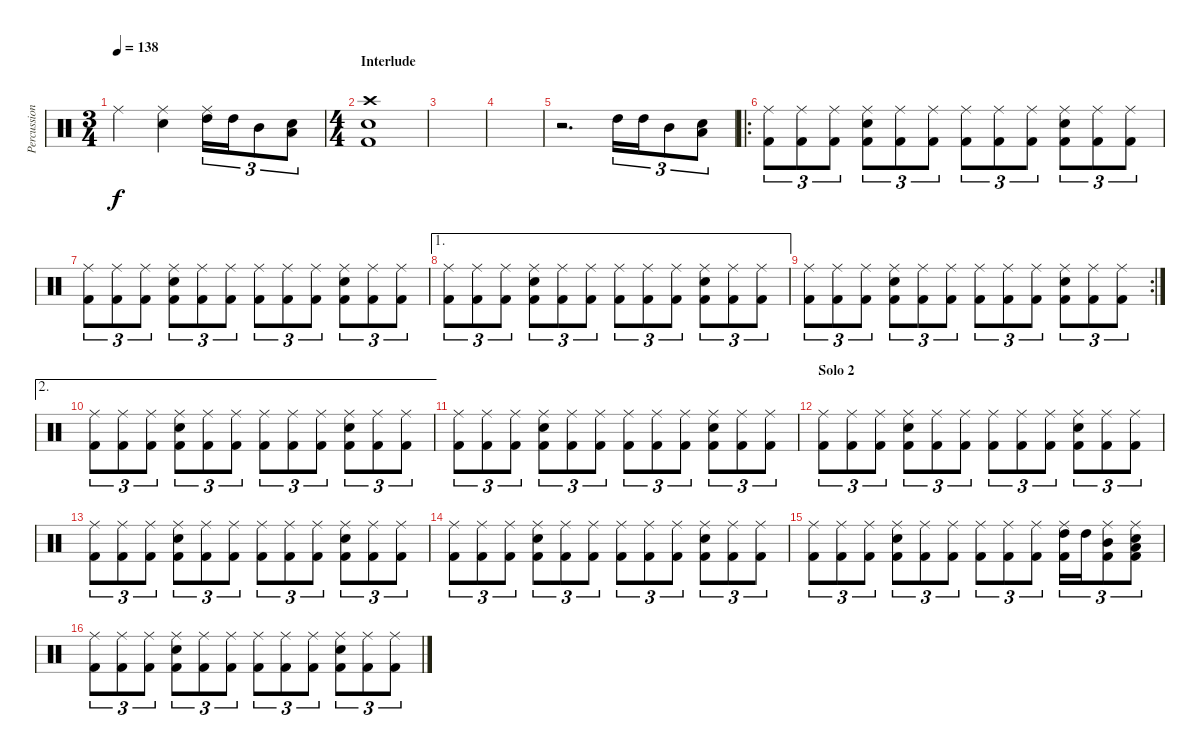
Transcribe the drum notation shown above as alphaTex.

\track ("Percussion" "Percussion") {instrument percussion}
\staff {score}
\articulation defaults
\ts (3 4)
\tempo 138
\clef neutral
\ks c "Ride (middle)".4{dy f}
("Ride (middle)" "Electric Snare (hit)").4 ("Ride (middle)" "High Tom (hit)").16{tu (3 2)} "High Tom (hit)".16{tu (3 2)} "Mid Tom (hit)".8{tu (3 2)} ("Low Floor Tom (hit)" "Electric Snare (hit)").8{tu (3 2)} |
\ts (4 4)
\section ("" "Interlude")
("Crash high (hit)" "Electric Snare (hit)" "Kick (hit) 2").1 |
|
|
r.2{d} "High Tom (hit)".16{tu (3 2)} "High Tom (hit)".16{tu (3 2)} "Mid Tom (hit)".8{tu (3 2)} ("Low Floor Tom (hit)" "Electric Snare (hit)").8{tu (3 2)} |
\ro
("Ride (middle)" "Kick (hit) 2").8{tu (3 2)} ("Ride (middle)" "Kick (hit) 2").8{tu (3 2)} ("Ride (middle)" "Kick (hit) 2").8{tu (3 2)} ("Ride (middle)" "Electric Snare (hit)" "Kick (hit) 2").8{tu (3 2)} ("Ride (middle)" "Kick (hit) 2").8{tu (3 2)} ("Ride (middle)" "Kick (hit) 2").8{tu (3 2)} ("Ride (middle)" "Kick (hit) 2").8{tu (3 2)} ("Ride (middle)" "Kick (hit) 2").8{tu (3 2)} ("Ride (middle)" "Kick (hit) 2").8{tu (3 2)} ("Ride (middle)" "Electric Snare (hit)" "Kick (hit) 2").8{tu (3 2)} ("Ride (middle)" "Kick (hit) 2").8{tu (3 2)} ("Ride (middle)" "Kick (hit) 2").8{tu (3 2)} |
("Ride (middle)" "Kick (hit) 2").8{tu (3 2)} ("Ride (middle)" "Kick (hit) 2").8{tu (3 2)} ("Ride (middle)" "Kick (hit) 2").8{tu (3 2)} ("Ride (middle)" "Electric Snare (hit)" "Kick (hit) 2").8{tu (3 2)} ("Ride (middle)" "Kick (hit) 2").8{tu (3 2)} ("Ride (middle)" "Kick (hit) 2").8{tu (3 2)} ("Ride (middle)" "Kick (hit) 2").8{tu (3 2)} ("Ride (middle)" "Kick (hit) 2").8{tu (3 2)} ("Ride (middle)" "Kick (hit) 2").8{tu (3 2)} ("Ride (middle)" "Electric Snare (hit)" "Kick (hit) 2").8{tu (3 2)} ("Ride (middle)" "Kick (hit) 2").8{tu (3 2)} ("Ride (middle)" "Kick (hit) 2").8{tu (3 2)} |
\ae 1
("Ride (middle)" "Kick (hit) 2").8{tu (3 2)} ("Ride (middle)" "Kick (hit) 2").8{tu (3 2)} ("Ride (middle)" "Kick (hit) 2").8{tu (3 2)} ("Ride (middle)" "Electric Snare (hit)" "Kick (hit) 2").8{tu (3 2)} ("Ride (middle)" "Kick (hit) 2").8{tu (3 2)} ("Ride (middle)" "Kick (hit) 2").8{tu (3 2)} ("Ride (middle)" "Kick (hit) 2").8{tu (3 2)} ("Ride (middle)" "Kick (hit) 2").8{tu (3 2)} ("Ride (middle)" "Kick (hit) 2").8{tu (3 2)} ("Ride (middle)" "Electric Snare (hit)" "Kick (hit) 2").8{tu (3 2)} ("Ride (middle)" "Kick (hit) 2").8{tu (3 2)} ("Ride (middle)" "Kick (hit) 2").8{tu (3 2)} |
\rc 2
("Ride (middle)" "Kick (hit) 2").8{tu (3 2)} ("Ride (middle)" "Kick (hit) 2").8{tu (3 2)} ("Ride (middle)" "Kick (hit) 2").8{tu (3 2)} ("Ride (middle)" "Electric Snare (hit)" "Kick (hit) 2").8{tu (3 2)} ("Ride (middle)" "Kick (hit) 2").8{tu (3 2)} ("Ride (middle)" "Kick (hit) 2").8{tu (3 2)} ("Ride (middle)" "Kick (hit) 2").8{tu (3 2)} ("Ride (middle)" "Kick (hit) 2").8{tu (3 2)} ("Ride (middle)" "Kick (hit) 2").8{tu (3 2)} ("Ride (middle)" "Electric Snare (hit)" "Kick (hit) 2").8{tu (3 2)} ("Ride (middle)" "Kick (hit) 2").8{tu (3 2)} ("Ride (middle)" "Kick (hit) 2").8{tu (3 2)} |
\ae 2
("Ride (middle)" "Kick (hit) 2").8{tu (3 2)} ("Ride (middle)" "Kick (hit) 2").8{tu (3 2)} ("Ride (middle)" "Kick (hit) 2").8{tu (3 2)} ("Ride (middle)" "Electric Snare (hit)" "Kick (hit) 2").8{tu (3 2)} ("Ride (middle)" "Kick (hit) 2").8{tu (3 2)} ("Ride (middle)" "Kick (hit) 2").8{tu (3 2)} ("Ride (middle)" "Kick (hit) 2").8{tu (3 2)} ("Ride (middle)" "Kick (hit) 2").8{tu (3 2)} ("Ride (middle)" "Kick (hit) 2").8{tu (3 2)} ("Ride (middle)" "Electric Snare (hit)" "Kick (hit) 2").8{tu (3 2)} ("Ride (middle)" "Kick (hit) 2").8{tu (3 2)} ("Ride (middle)" "Kick (hit) 2").8{tu (3 2)} |
("Ride (middle)" "Kick (hit) 2").8{tu (3 2)} ("Ride (middle)" "Kick (hit) 2").8{tu (3 2)} ("Ride (middle)" "Kick (hit) 2").8{tu (3 2)} ("Ride (middle)" "Electric Snare (hit)" "Kick (hit) 2").8{tu (3 2)} ("Ride (middle)" "Kick (hit) 2").8{tu (3 2)} ("Ride (middle)" "Kick (hit) 2").8{tu (3 2)} ("Ride (middle)" "Kick (hit) 2").8{tu (3 2)} ("Ride (middle)" "Kick (hit) 2").8{tu (3 2)} ("Ride (middle)" "Kick (hit) 2").8{tu (3 2)} ("Ride (middle)" "Electric Snare (hit)" "Kick (hit) 2").8{tu (3 2)} ("Ride (middle)" "Kick (hit) 2").8{tu (3 2)} ("Ride (middle)" "Kick (hit) 2").8{tu (3 2)} |
\section ("" "Solo 2")
("Ride (middle)" "Kick (hit) 2").8{tu (3 2)} ("Ride (middle)" "Kick (hit) 2").8{tu (3 2)} ("Ride (middle)" "Kick (hit) 2").8{tu (3 2)} ("Ride (middle)" "Electric Snare (hit)" "Kick (hit) 2").8{tu (3 2)} ("Ride (middle)" "Kick (hit) 2").8{tu (3 2)} ("Ride (middle)" "Kick (hit) 2").8{tu (3 2)} ("Ride (middle)" "Kick (hit) 2").8{tu (3 2)} ("Ride (middle)" "Kick (hit) 2").8{tu (3 2)} ("Ride (middle)" "Kick (hit) 2").8{tu (3 2)} ("Ride (middle)" "Electric Snare (hit)" "Kick (hit) 2").8{tu (3 2)} ("Ride (middle)" "Kick (hit) 2").8{tu (3 2)} ("Ride (middle)" "Kick (hit) 2").8{tu (3 2)} |
("Ride (middle)" "Kick (hit) 2").8{tu (3 2)} ("Ride (middle)" "Kick (hit) 2").8{tu (3 2)} ("Ride (middle)" "Kick (hit) 2").8{tu (3 2)} ("Ride (middle)" "Electric Snare (hit)" "Kick (hit) 2").8{tu (3 2)} ("Ride (middle)" "Kick (hit) 2").8{tu (3 2)} ("Ride (middle)" "Kick (hit) 2").8{tu (3 2)} ("Ride (middle)" "Kick (hit) 2").8{tu (3 2)} ("Ride (middle)" "Kick (hit) 2").8{tu (3 2)} ("Ride (middle)" "Kick (hit) 2").8{tu (3 2)} ("Ride (middle)" "Electric Snare (hit)" "Kick (hit) 2").8{tu (3 2)} ("Ride (middle)" "Kick (hit) 2").8{tu (3 2)} ("Ride (middle)" "Kick (hit) 2").8{tu (3 2)} |
("Ride (middle)" "Kick (hit) 2").8{tu (3 2)} ("Ride (middle)" "Kick (hit) 2").8{tu (3 2)} ("Ride (middle)" "Kick (hit) 2").8{tu (3 2)} ("Ride (middle)" "Electric Snare (hit)" "Kick (hit) 2").8{tu (3 2)} ("Ride (middle)" "Kick (hit) 2").8{tu (3 2)} ("Ride (middle)" "Kick (hit) 2").8{tu (3 2)} ("Ride (middle)" "Kick (hit) 2").8{tu (3 2)} ("Ride (middle)" "Kick (hit) 2").8{tu (3 2)} ("Ride (middle)" "Kick (hit) 2").8{tu (3 2)} ("Ride (middle)" "Electric Snare (hit)" "Kick (hit) 2").8{tu (3 2)} ("Ride (middle)" "Kick (hit) 2").8{tu (3 2)} ("Ride (middle)" "Kick (hit) 2").8{tu (3 2)} |
("Ride (middle)" "Kick (hit) 2").8{tu (3 2)} ("Ride (middle)" "Kick (hit) 2").8{tu (3 2)} ("Ride (middle)" "Kick (hit) 2").8{tu (3 2)} ("Ride (middle)" "Electric Snare (hit)" "Kick (hit) 2").8{tu (3 2)} ("Ride (middle)" "Kick (hit) 2").8{tu (3 2)} ("Ride (middle)" "Kick (hit) 2").8{tu (3 2)} ("Ride (middle)" "Kick (hit) 2").8{tu (3 2)} ("Ride (middle)" "Kick (hit) 2").8{tu (3 2)} ("Ride (middle)" "Kick (hit) 2").8{tu (3 2)} ("Ride (middle)" "High Tom (hit)" "Kick (hit) 2").16{tu (3 2)} "High Tom (hit)".16{tu (3 2)} ("Ride (middle)" "Mid Tom (hit)" "Kick (hit) 2").8{tu (3 2)} ("Ride (middle)" "Low Floor Tom (hit)" "Electric Snare (hit)" "Kick (hit) 2").8{tu (3 2)} |
("Ride (middle)" "Kick (hit) 2").8{tu (3 2)} ("Ride (middle)" "Kick (hit) 2").8{tu (3 2)} ("Ride (middle)" "Kick (hit) 2").8{tu (3 2)} ("Ride (middle)" "Electric Snare (hit)" "Kick (hit) 2").8{tu (3 2)} ("Ride (middle)" "Kick (hit) 2").8{tu (3 2)} ("Ride (middle)" "Kick (hit) 2").8{tu (3 2)} ("Ride (middle)" "Kick (hit) 2").8{tu (3 2)} ("Ride (middle)" "Kick (hit) 2").8{tu (3 2)} ("Ride (middle)" "Kick (hit) 2").8{tu (3 2)} ("Ride (middle)" "Electric Snare (hit)" "Kick (hit) 2").8{tu (3 2)} ("Ride (middle)" "Kick (hit) 2").8{tu (3 2)} ("Ride (middle)" "Kick (hit) 2").8{tu (3 2)}
